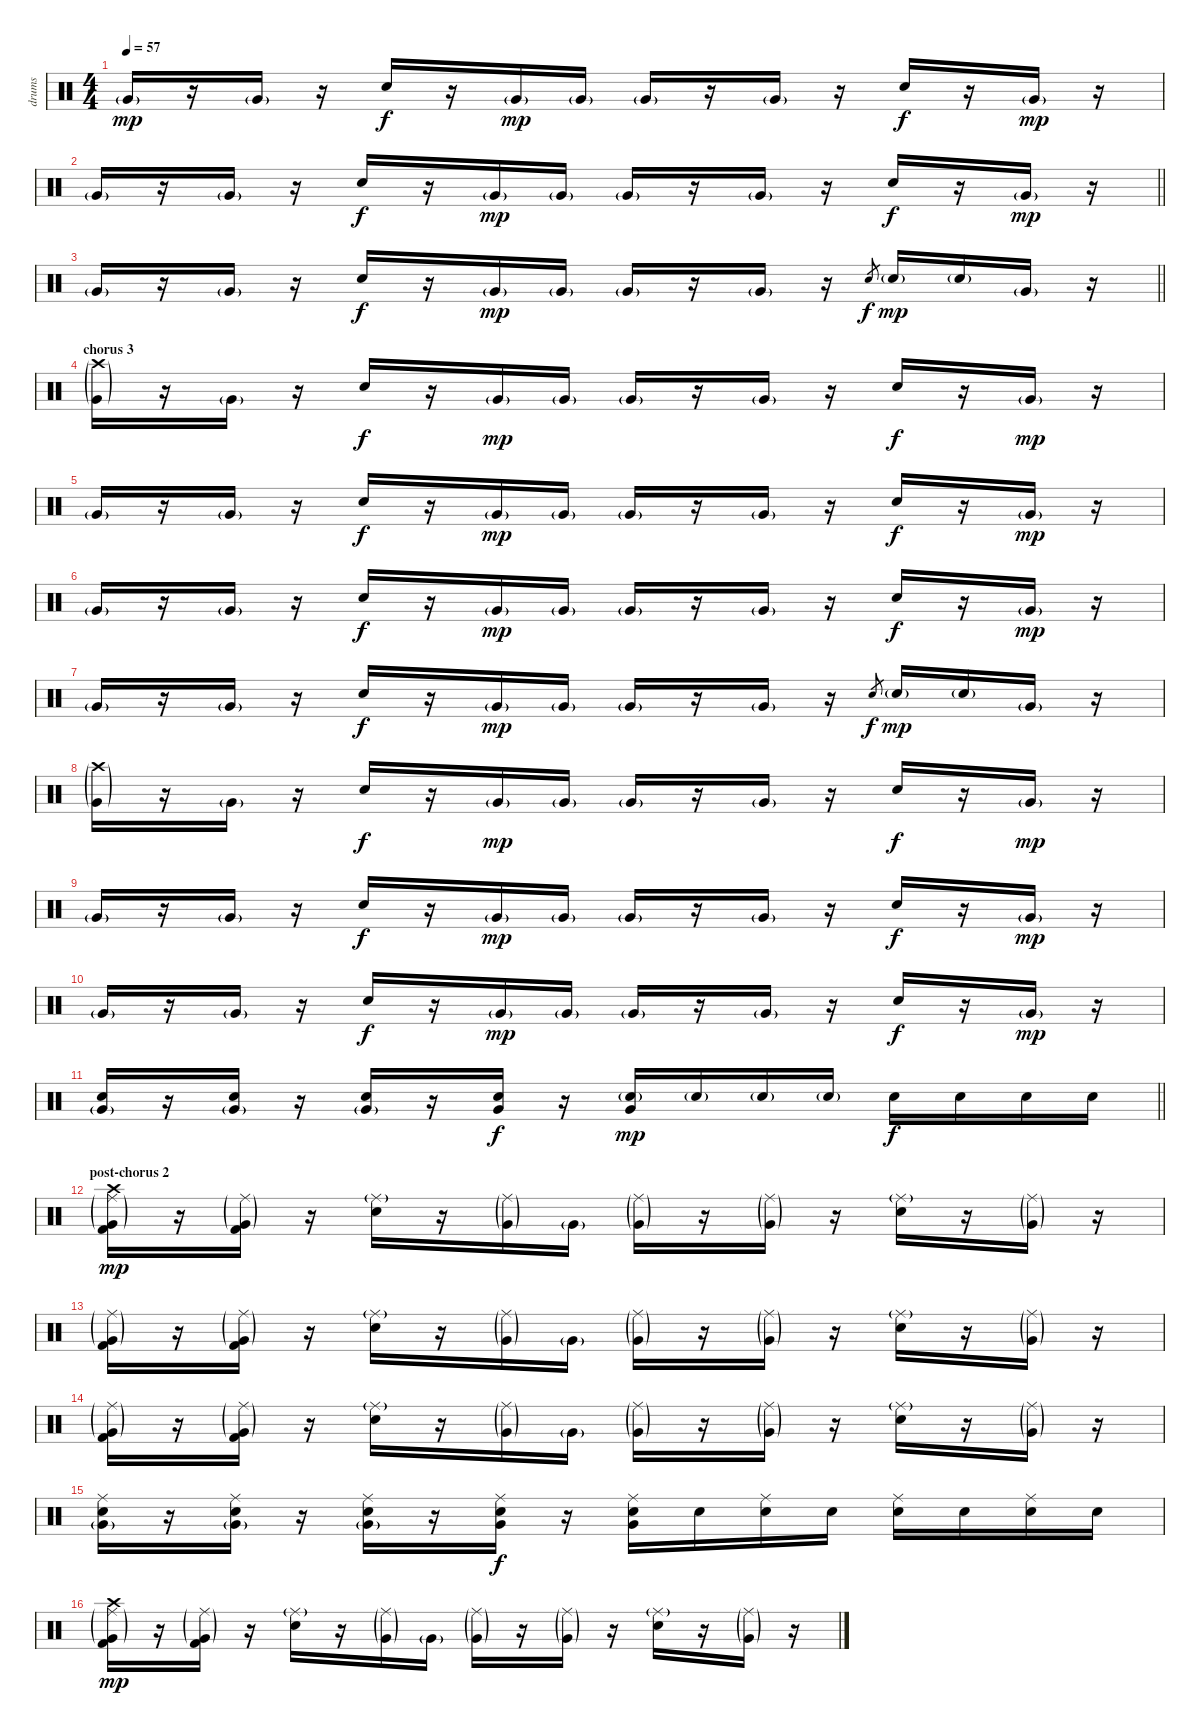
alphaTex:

\track ("drums" "drums") {instrument percussion}
\staff {score}
\articulation defaults
\ts (4 4)
\tempo 57
\clef neutral
\ks c "Very Low Tom (hit)"{g}.16{dy mp}
r.16 "Very Low Tom (hit)"{g}.16 r.16 "Electric Snare (hit)".16{dy f} r.16 "Very Low Tom (hit)"{g}.16{dy mp} "Very Low Tom (hit)"{g}.16 "Very Low Tom (hit)"{g}.16 r.16 "Very Low Tom (hit)"{g}.16 r.16 "Electric Snare (hit)".16{dy f} r.16 "Very Low Tom (hit)"{g}.16{dy mp} r.16 |
\barLineRight lightlight "Very Low Tom (hit)"{g}.16
r.16 "Very Low Tom (hit)"{g}.16 r.16 "Electric Snare (hit)".16{dy f} r.16 "Very Low Tom (hit)"{g}.16{dy mp} "Very Low Tom (hit)"{g}.16 "Very Low Tom (hit)"{g}.16 r.16 "Very Low Tom (hit)"{g}.16 r.16 "Electric Snare (hit)".16{dy f} r.16 "Very Low Tom (hit)"{g}.16{dy mp} r.16 |
\barLineRight lightlight "Very Low Tom (hit)"{g}.16
r.16 "Very Low Tom (hit)"{g}.16 r.16 "Electric Snare (hit)".16{dy f} r.16 "Very Low Tom (hit)"{g}.16{dy mp} "Very Low Tom (hit)"{g}.16 "Very Low Tom (hit)"{g}.16 r.16 "Very Low Tom (hit)"{g}.16 r.16 "Electric Snare (hit)".8{gr dy f} "Electric Snare (hit)"{g}.16{dy mp} "Electric Snare (hit)"{g}.16 "Very Low Tom (hit)"{g}.16 r.16 |
\section ("" "chorus 3")
("Very Low Tom (hit)"{g} "Crash high (hit)"{g}).16 r.16 "Very Low Tom (hit)"{g}.16 r.16 "Electric Snare (hit)".16{dy f} r.16 "Very Low Tom (hit)"{g}.16{dy mp} "Very Low Tom (hit)"{g}.16 "Very Low Tom (hit)"{g}.16 r.16 "Very Low Tom (hit)"{g}.16 r.16 "Electric Snare (hit)".16{dy f} r.16 "Very Low Tom (hit)"{g}.16{dy mp} r.16 |
"Very Low Tom (hit)"{g}.16 r.16 "Very Low Tom (hit)"{g}.16 r.16 "Electric Snare (hit)".16{dy f} r.16 "Very Low Tom (hit)"{g}.16{dy mp} "Very Low Tom (hit)"{g}.16 "Very Low Tom (hit)"{g}.16 r.16 "Very Low Tom (hit)"{g}.16 r.16 "Electric Snare (hit)".16{dy f} r.16 "Very Low Tom (hit)"{g}.16{dy mp} r.16 |
"Very Low Tom (hit)"{g}.16 r.16 "Very Low Tom (hit)"{g}.16 r.16 "Electric Snare (hit)".16{dy f} r.16 "Very Low Tom (hit)"{g}.16{dy mp} "Very Low Tom (hit)"{g}.16 "Very Low Tom (hit)"{g}.16 r.16 "Very Low Tom (hit)"{g}.16 r.16 "Electric Snare (hit)".16{dy f} r.16 "Very Low Tom (hit)"{g}.16{dy mp} r.16 |
"Very Low Tom (hit)"{g}.16 r.16 "Very Low Tom (hit)"{g}.16 r.16 "Electric Snare (hit)".16{dy f} r.16 "Very Low Tom (hit)"{g}.16{dy mp} "Very Low Tom (hit)"{g}.16 "Very Low Tom (hit)"{g}.16 r.16 "Very Low Tom (hit)"{g}.16 r.16 "Electric Snare (hit)".8{gr dy f} "Electric Snare (hit)"{g}.16{dy mp} "Electric Snare (hit)"{g}.16 "Very Low Tom (hit)"{g}.16 r.16 |
("Very Low Tom (hit)"{g} "Crash high (hit)"{g}).16 r.16 "Very Low Tom (hit)"{g}.16 r.16 "Electric Snare (hit)".16{dy f} r.16 "Very Low Tom (hit)"{g}.16{dy mp} "Very Low Tom (hit)"{g}.16 "Very Low Tom (hit)"{g}.16 r.16 "Very Low Tom (hit)"{g}.16 r.16 "Electric Snare (hit)".16{dy f} r.16 "Very Low Tom (hit)"{g}.16{dy mp} r.16 |
"Very Low Tom (hit)"{g}.16 r.16 "Very Low Tom (hit)"{g}.16 r.16 "Electric Snare (hit)".16{dy f} r.16 "Very Low Tom (hit)"{g}.16{dy mp} "Very Low Tom (hit)"{g}.16 "Very Low Tom (hit)"{g}.16 r.16 "Very Low Tom (hit)"{g}.16 r.16 "Electric Snare (hit)".16{dy f} r.16 "Very Low Tom (hit)"{g}.16{dy mp} r.16 |
"Very Low Tom (hit)"{g}.16 r.16 "Very Low Tom (hit)"{g}.16 r.16 "Electric Snare (hit)".16{dy f} r.16 "Very Low Tom (hit)"{g}.16{dy mp} "Very Low Tom (hit)"{g}.16 "Very Low Tom (hit)"{g}.16 r.16 "Very Low Tom (hit)"{g}.16 r.16 "Electric Snare (hit)".16{dy f} r.16 "Very Low Tom (hit)"{g}.16{dy mp} r.16 |
\barLineRight lightlight
("Electric Snare (hit)" "Very Low Tom (hit)"{g}).16 r.16 ("Electric Snare (hit)" "Very Low Tom (hit)"{g}).16 r.16 ("Electric Snare (hit)" "Very Low Tom (hit)"{g}).16 r.16 ("Electric Snare (hit)" "Very Low Tom (hit)").16{dy f} r.16 ("Electric Snare (hit)"{g} "Very Low Tom (hit)").16{dy mp} "Electric Snare (hit)"{g}.16 "Electric Snare (hit)"{g}.16 "Electric Snare (hit)"{g}.16 "Electric Snare (hit)".16{dy f} "Electric Snare (hit)".16 "Electric Snare (hit)".16 "Electric Snare (hit)".16 |
\section ("" "post-chorus 2")
("Kick (hit) 2" "Very Low Tom (hit)"{g} "Ride (middle)"{g} "Crash high (hit)").16{dy mp} r.16 ("Kick (hit) 2" "Very Low Tom (hit)"{g} "Ride (middle)"{g}).16 r.16 ("Electric Snare (hit)" "Ride (middle)"{g}).16 r.16 ("Very Low Tom (hit)"{g} "Ride (middle)"{g}).16 "Very Low Tom (hit)"{g}.16 ("Very Low Tom (hit)"{g} "Ride (middle)"{g}).16 r.16 ("Very Low Tom (hit)"{g} "Ride (middle)"{g}).16 r.16 ("Electric Snare (hit)" "Ride (middle)"{g}).16 r.16 ("Very Low Tom (hit)"{g} "Ride (middle)"{g}).16 r.16 |
("Kick (hit) 2" "Very Low Tom (hit)"{g} "Ride (middle)"{g}).16 r.16 ("Kick (hit) 2" "Very Low Tom (hit)"{g} "Ride (middle)"{g}).16 r.16 ("Electric Snare (hit)" "Ride (middle)"{g}).16 r.16 ("Very Low Tom (hit)"{g} "Ride (middle)"{g}).16 "Very Low Tom (hit)"{g}.16 ("Very Low Tom (hit)"{g} "Ride (middle)"{g}).16 r.16 ("Very Low Tom (hit)"{g} "Ride (middle)"{g}).16 r.16 ("Electric Snare (hit)" "Ride (middle)"{g}).16 r.16 ("Very Low Tom (hit)"{g} "Ride (middle)"{g}).16 r.16 |
("Kick (hit) 2" "Very Low Tom (hit)"{g} "Ride (middle)"{g}).16 r.16 ("Kick (hit) 2" "Very Low Tom (hit)"{g} "Ride (middle)"{g}).16 r.16 ("Electric Snare (hit)" "Ride (middle)"{g}).16 r.16 ("Very Low Tom (hit)"{g} "Ride (middle)"{g}).16 "Very Low Tom (hit)"{g}.16 ("Very Low Tom (hit)"{g} "Ride (middle)"{g}).16 r.16 ("Very Low Tom (hit)"{g} "Ride (middle)"{g}).16 r.16 ("Electric Snare (hit)" "Ride (middle)"{g}).16 r.16 ("Very Low Tom (hit)"{g} "Ride (middle)"{g}).16 r.16 |
("Electric Snare (hit)" "Very Low Tom (hit)"{g} "Ride (middle)").16 r.16 ("Electric Snare (hit)" "Very Low Tom (hit)"{g} "Ride (middle)").16 r.16 ("Electric Snare (hit)" "Very Low Tom (hit)"{g} "Ride (middle)").16 r.16 ("Electric Snare (hit)" "Very Low Tom (hit)" "Ride (middle)").16{dy f} r.16 ("Electric Snare (hit)" "Very Low Tom (hit)" "Ride (middle)").16 "Electric Snare (hit)".16 ("Electric Snare (hit)" "Ride (middle)").16 "Electric Snare (hit)".16 ("Electric Snare (hit)" "Ride (middle)").16 "Electric Snare (hit)".16 ("Electric Snare (hit)" "Ride (middle)").16 "Electric Snare (hit)".16 |
("Kick (hit) 2" "Very Low Tom (hit)"{g} "Ride (middle)"{g} "Crash high (hit)").16{dy mp} r.16 ("Kick (hit) 2" "Very Low Tom (hit)"{g} "Ride (middle)"{g}).16 r.16 ("Electric Snare (hit)" "Ride (middle)"{g}).16 r.16 ("Very Low Tom (hit)"{g} "Ride (middle)"{g}).16 "Very Low Tom (hit)"{g}.16 ("Very Low Tom (hit)"{g} "Ride (middle)"{g}).16 r.16 ("Very Low Tom (hit)"{g} "Ride (middle)"{g}).16 r.16 ("Electric Snare (hit)" "Ride (middle)"{g}).16 r.16 ("Very Low Tom (hit)"{g} "Ride (middle)"{g}).16 r.16
